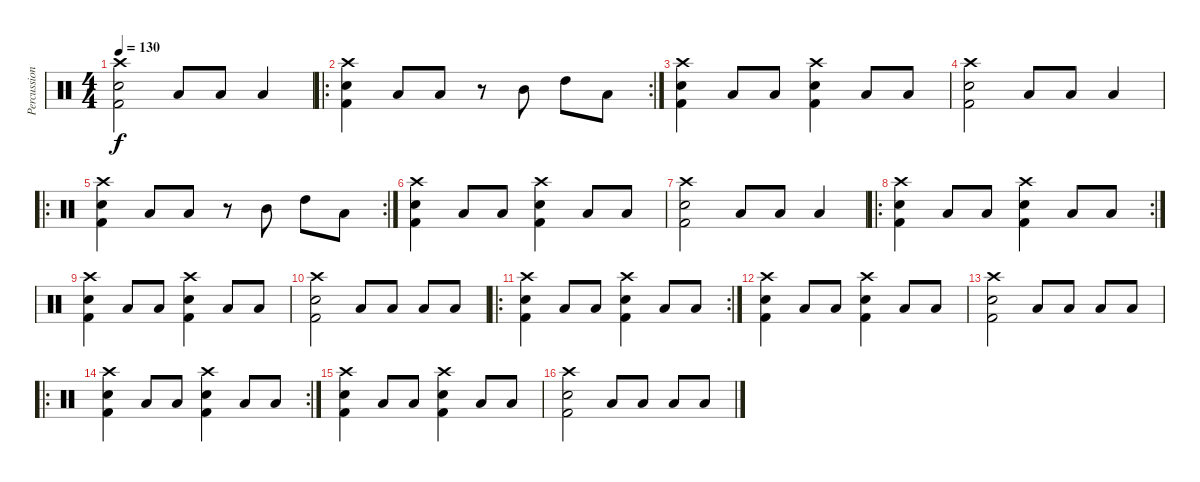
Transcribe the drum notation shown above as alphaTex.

\track ("Percussions" "Percussion") {instrument percussion}
\staff {score}
\articulation defaults
\ts (4 4)
\tempo 130
\clef neutral
\ks c
("Electric Snare (hit)" "Kick (hit) 2" "Crash high (hit)").2{dy f} "Low Tom (hit)".8 "Low Tom (hit)".8 "Low Tom (hit)".4 |
\ro
\rc 2
("Electric Snare (hit)" "Kick (hit) 2" "Crash high (hit)").4 "Low Tom (hit)".8 "Low Tom (hit)".8 r.8 "Mid Tom (hit)".8 "High Tom (hit)".8 "Low Tom (hit)".8 |
("Electric Snare (hit)" "Kick (hit) 2" "Crash high (hit)").4 "Low Tom (hit)".8 "Low Tom (hit)".8 ("Electric Snare (hit)" "Kick (hit) 2" "Crash high (hit)").4 "Low Tom (hit)".8 "Low Tom (hit)".8 |
("Electric Snare (hit)" "Kick (hit) 2" "Crash high (hit)").2 "Low Tom (hit)".8 "Low Tom (hit)".8 "Low Tom (hit)".4 |
\ro
\rc 2
("Electric Snare (hit)" "Kick (hit) 2" "Crash high (hit)").4 "Low Tom (hit)".8 "Low Tom (hit)".8 r.8 "Mid Tom (hit)".8 "High Tom (hit)".8 "Low Tom (hit)".8 |
("Electric Snare (hit)" "Kick (hit) 2" "Crash high (hit)").4 "Low Tom (hit)".8 "Low Tom (hit)".8 ("Electric Snare (hit)" "Kick (hit) 2" "Crash high (hit)").4 "Low Tom (hit)".8 "Low Tom (hit)".8 |
("Electric Snare (hit)" "Kick (hit) 2" "Crash high (hit)").2 "Low Tom (hit)".8 "Low Tom (hit)".8 "Low Tom (hit)".4 |
\ro
\rc 2
("Electric Snare (hit)" "Kick (hit) 2" "Crash high (hit)").4 "Low Tom (hit)".8 "Low Tom (hit)".8 ("Crash high (hit)" "Kick (hit) 2" "Electric Snare (hit)").4 "Low Tom (hit)".8 "Low Tom (hit)".8 |
("Electric Snare (hit)" "Kick (hit) 2" "Crash high (hit)").4 "Low Tom (hit)".8 "Low Tom (hit)".8 ("Electric Snare (hit)" "Kick (hit) 2" "Crash high (hit)").4 "Low Tom (hit)".8 "Low Tom (hit)".8 |
("Electric Snare (hit)" "Kick (hit) 2" "Crash high (hit)").2 "Low Tom (hit)".8 "Low Tom (hit)".8 "Low Tom (hit)".8 "Low Tom (hit)".8 |
\ro
\rc 2
("Electric Snare (hit)" "Kick (hit) 2" "Crash high (hit)").4 "Low Tom (hit)".8 "Low Tom (hit)".8 ("Crash high (hit)" "Kick (hit) 2" "Electric Snare (hit)").4 "Low Tom (hit)".8 "Low Tom (hit)".8 |
("Electric Snare (hit)" "Kick (hit) 2" "Crash high (hit)").4 "Low Tom (hit)".8 "Low Tom (hit)".8 ("Electric Snare (hit)" "Kick (hit) 2" "Crash high (hit)").4 "Low Tom (hit)".8 "Low Tom (hit)".8 |
("Electric Snare (hit)" "Kick (hit) 2" "Crash high (hit)").2 "Low Tom (hit)".8 "Low Tom (hit)".8 "Low Tom (hit)".8 "Low Tom (hit)".8 |
\ro
\rc 2
("Electric Snare (hit)" "Kick (hit) 2" "Crash high (hit)").4 "Low Tom (hit)".8 "Low Tom (hit)".8 ("Crash high (hit)" "Kick (hit) 2" "Electric Snare (hit)").4 "Low Tom (hit)".8 "Low Tom (hit)".8 |
("Electric Snare (hit)" "Kick (hit) 2" "Crash high (hit)").4 "Low Tom (hit)".8 "Low Tom (hit)".8 ("Electric Snare (hit)" "Kick (hit) 2" "Crash high (hit)").4 "Low Tom (hit)".8 "Low Tom (hit)".8 |
("Electric Snare (hit)" "Kick (hit) 2" "Crash high (hit)").2 "Low Tom (hit)".8 "Low Tom (hit)".8 "Low Tom (hit)".8 "Low Tom (hit)".8
